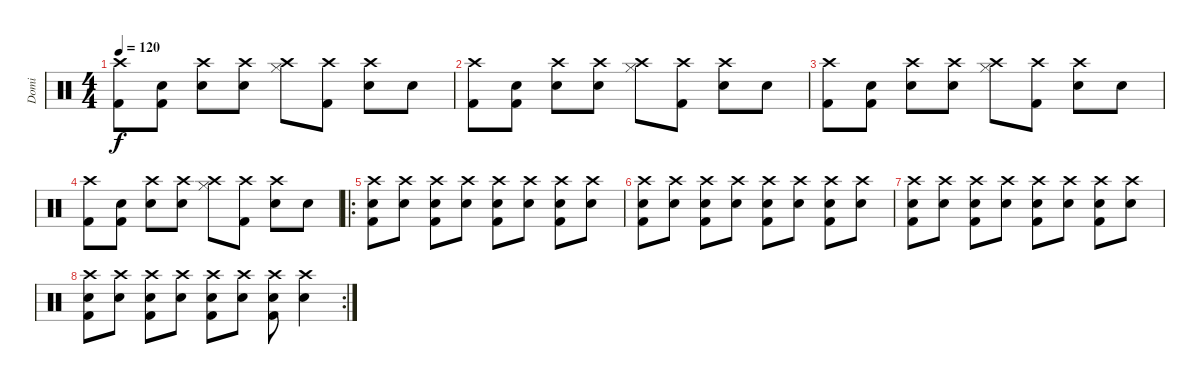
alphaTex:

\track ("Domi" "Domi") {instrument percussion}
\staff {score}
\articulation defaults
\ts (4 4)
\tempo 120
\clef neutral
\ks c
("Crash high (hit)" "Kick (hit) 2").8{dy f} ("Snare (hit) 2" "Kick (hit) 2").8 ("Crash high (hit)" "Snare (hit) 2").8 ("Crash high (hit)" "Snare (hit) 2").8 ("Crash high (hit)" "Hi-Hat (closed)").8 ("Crash high (hit)" "Kick (hit) 2").8 ("Crash high (hit)" "Snare (hit) 2").8 "Snare (hit) 2".8 |
("Crash high (hit)" "Kick (hit) 2").8 ("Snare (hit) 2" "Kick (hit) 2").8 ("Crash high (hit)" "Snare (hit) 2").8 ("Crash high (hit)" "Snare (hit) 2").8 ("Crash high (hit)" "Hi-Hat (closed)").8 ("Crash high (hit)" "Kick (hit) 2").8 ("Crash high (hit)" "Snare (hit) 2").8 "Snare (hit) 2".8 |
("Crash high (hit)" "Kick (hit) 2").8 ("Snare (hit) 2" "Kick (hit) 2").8 ("Crash high (hit)" "Snare (hit) 2").8 ("Crash high (hit)" "Snare (hit) 2").8 ("Crash high (hit)" "Hi-Hat (closed)").8 ("Crash high (hit)" "Kick (hit) 2").8 ("Crash high (hit)" "Snare (hit) 2").8 "Snare (hit) 2".8 |
("Crash high (hit)" "Kick (hit) 2").8 ("Snare (hit) 2" "Kick (hit) 2").8 ("Crash high (hit)" "Snare (hit) 2").8 ("Crash high (hit)" "Snare (hit) 2").8 ("Crash high (hit)" "Hi-Hat (closed)").8 ("Crash high (hit)" "Kick (hit) 2").8 ("Crash high (hit)" "Snare (hit) 2").8 "Snare (hit) 2".8 |
\ro
("Crash high (hit)" "Snare (hit) 2" "Kick (hit) 2").8 ("Crash high (hit)" "Snare (hit) 2").8 ("Crash high (hit)" "Snare (hit) 2" "Kick (hit) 2").8 ("Crash high (hit)" "Snare (hit) 2").8 ("Crash high (hit)" "Snare (hit) 2" "Kick (hit) 2").8 ("Crash high (hit)" "Snare (hit) 2").8 ("Crash high (hit)" "Snare (hit) 2" "Kick (hit) 2").8 ("Crash high (hit)" "Snare (hit) 2").8 |
("Crash high (hit)" "Snare (hit) 2" "Kick (hit) 2").8 ("Crash high (hit)" "Snare (hit) 2").8 ("Crash high (hit)" "Snare (hit) 2" "Kick (hit) 2").8 ("Crash high (hit)" "Snare (hit) 2").8 ("Crash high (hit)" "Snare (hit) 2" "Kick (hit) 2").8 ("Crash high (hit)" "Snare (hit) 2").8 ("Crash high (hit)" "Snare (hit) 2" "Kick (hit) 2").8 ("Crash high (hit)" "Snare (hit) 2").8 |
("Crash high (hit)" "Snare (hit) 2" "Kick (hit) 2").8 ("Crash high (hit)" "Snare (hit) 2").8 ("Crash high (hit)" "Snare (hit) 2" "Kick (hit) 2").8 ("Crash high (hit)" "Snare (hit) 2").8 ("Crash high (hit)" "Snare (hit) 2" "Kick (hit) 2").8 ("Crash high (hit)" "Snare (hit) 2").8 ("Crash high (hit)" "Snare (hit) 2" "Kick (hit) 2").8 ("Crash high (hit)" "Snare (hit) 2").8 |
\rc 2
("Crash high (hit)" "Snare (hit) 2" "Kick (hit) 2").8 ("Crash high (hit)" "Snare (hit) 2").8 ("Crash high (hit)" "Snare (hit) 2" "Kick (hit) 2").8 ("Crash high (hit)" "Snare (hit) 2").8 ("Crash high (hit)" "Snare (hit) 2" "Kick (hit) 2").8 ("Crash high (hit)" "Snare (hit) 2").8 ("Crash high (hit)" "Snare (hit) 2" "Kick (hit) 2").8 ("Crash high (hit)" "Snare (hit) 2").4
